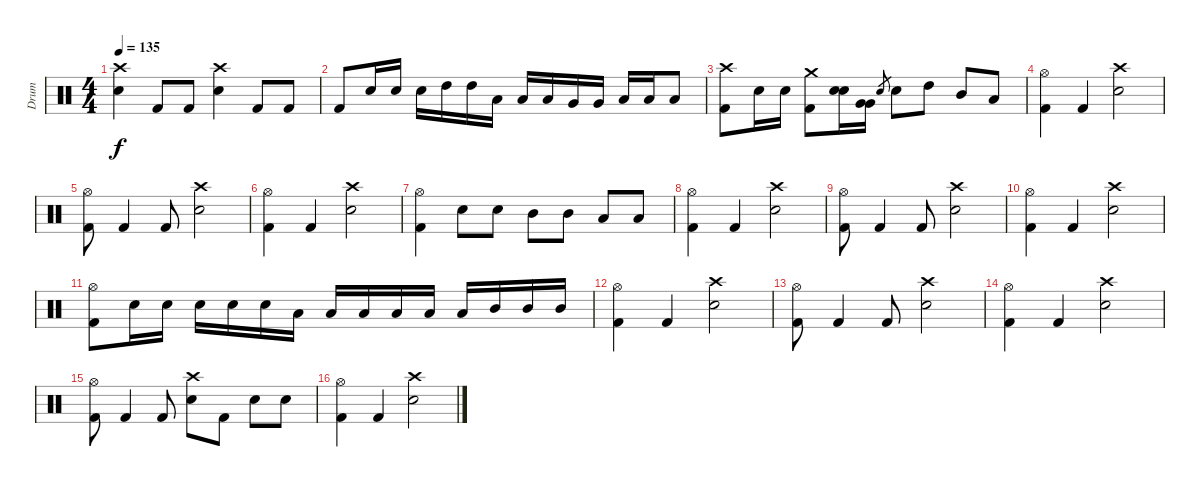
\track ("Drum" "Drum") {instrument percussion}
\staff {score}
\articulation defaults
\ts (4 4)
\tempo 135
\clef neutral
\ks c
("Crash high (hit)" "Electric Snare (hit)").4{dy f} "Kick (hit) 2".8 "Kick (hit) 2".8 ("Crash high (hit)" "Electric Snare (hit)").4 "Kick (hit) 2".8 "Kick (hit) 2".8 |
"Kick (hit) 2".8 "Electric Snare (hit)".16 "Electric Snare (hit)".16 "Electric Snare (hit)".16 "High Tom (hit)".16 "High Tom (hit)".16 "Low Tom (hit)".16 "Low Tom (hit)".16 "Low Tom (hit)".16 "Very Low Tom (hit)".16 "Very Low Tom (hit)".16 "Low Floor Tom (hit)".16 "Low Floor Tom (hit)".16 "Low Floor Tom (hit)".8 |
("Crash high (hit)" "Kick (hit) 2").8 "Electric Snare (hit)".16 "Electric Snare (hit)".16 ("Crash medium (hit)" "Kick (hit) 2").8 ("Electric Snare (hit)" "Electric Snare (hit)").16 ("Very Low Tom (hit)" "Very Low Tom (hit)").16 "Electric Snare (hit)".8{gr} "Electric Snare (hit)".8 "High Tom (hit)".8 "Mid Tom (hit)".8 "Low Tom (hit)".8 |
("Hi-Hat (open)" "Kick (hit) 2").4 "Kick (hit) 2".4 ("Crash high (hit)" "Electric Snare (hit)").2 |
("Hi-Hat (open)" "Kick (hit) 2").8 "Kick (hit) 2".4 "Kick (hit) 2".8 ("Crash high (hit)" "Electric Snare (hit)").2 |
("Hi-Hat (open)" "Kick (hit) 2").4 "Kick (hit) 2".4 ("Crash high (hit)" "Electric Snare (hit)").2 |
("Hi-Hat (open)" "Kick (hit) 2").4 "Electric Snare (hit)".8 "Electric Snare (hit)".8 "Mid Tom (hit)".8 "Mid Tom (hit)".8 "Low Tom (hit)".8 "Low Tom (hit)".8 |
("Hi-Hat (open)" "Kick (hit) 2").4 "Kick (hit) 2".4 ("Crash high (hit)" "Electric Snare (hit)").2 |
("Hi-Hat (open)" "Kick (hit) 2").8 "Kick (hit) 2".4 "Kick (hit) 2".8 ("Crash high (hit)" "Electric Snare (hit)").2 |
("Hi-Hat (open)" "Kick (hit) 2").4 "Kick (hit) 2".4 ("Crash high (hit)" "Electric Snare (hit)").2 |
("Hi-Hat (open)" "Kick (hit) 2").8 "Electric Snare (hit)".16 "Electric Snare (hit)".16 "Electric Snare (hit)".16 "Electric Snare (hit)".16 "Electric Snare (hit)".16 "Low Tom (hit)".16 "Low Tom (hit)".16 "Low Tom (hit)".16 "Low Tom (hit)".16 "Low Tom (hit)".16 "Low Tom (hit)".16 "Mid Tom (hit)".16 "Mid Tom (hit)".16 "Mid Tom (hit)".16 |
("Hi-Hat (open)" "Kick (hit) 2").4 "Kick (hit) 2".4 ("Crash high (hit)" "Electric Snare (hit)").2 |
("Hi-Hat (open)" "Kick (hit) 2").8 "Kick (hit) 2".4 "Kick (hit) 2".8 ("Crash high (hit)" "Electric Snare (hit)").2 |
("Hi-Hat (open)" "Kick (hit) 2").4 "Kick (hit) 2".4 ("Crash high (hit)" "Electric Snare (hit)").2 |
("Hi-Hat (open)" "Kick (hit) 2").8 "Kick (hit) 2".4 "Kick (hit) 2".8 ("Crash high (hit)" "Electric Snare (hit)").8 "Kick (hit) 2".8 "Electric Snare (hit)".8 "Electric Snare (hit)".8 |
("Hi-Hat (open)" "Kick (hit) 2").4 "Kick (hit) 2".4 ("Crash high (hit)" "Electric Snare (hit)").2
